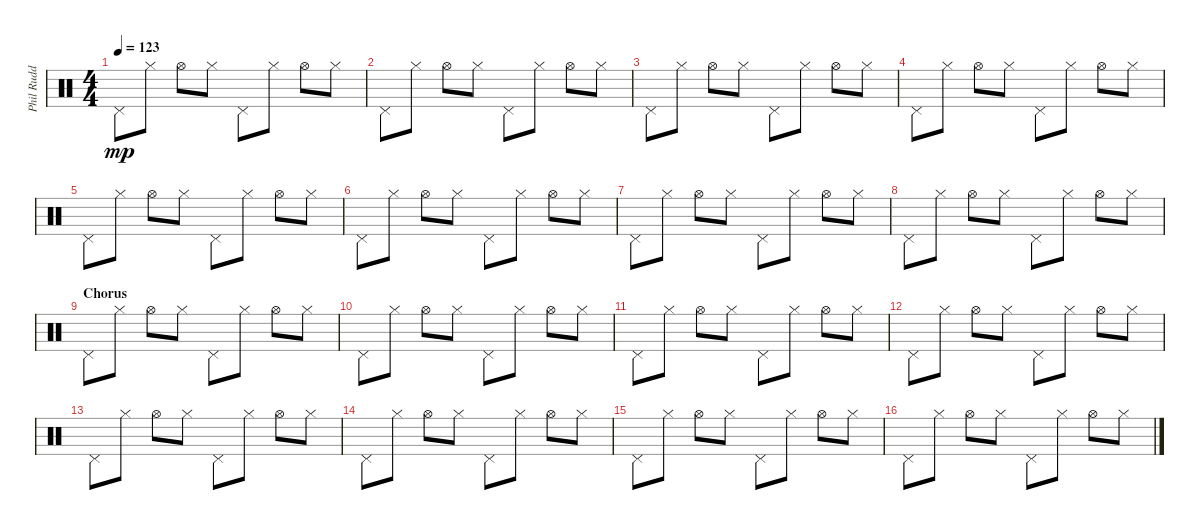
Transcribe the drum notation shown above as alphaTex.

\track ("Phil Rudd (HiHat)" "Phil Rudd ") {instrument percussion}
\staff {score}
\articulation defaults
\ts (4 4)
\tempo 123
\clef neutral
\ks c "Pedal Hi-Hat (hit)".8{dy mp} "Hi-Hat (closed)".8 "Hi-Hat (open)".8 "Hi-Hat (closed)".8 "Pedal Hi-Hat (hit)".8 "Hi-Hat (closed)".8 "Hi-Hat (open)".8 "Hi-Hat (closed)".8
|
"Pedal Hi-Hat (hit)".8 "Hi-Hat (closed)".8 "Hi-Hat (open)".8 "Hi-Hat (closed)".8 "Pedal Hi-Hat (hit)".8 "Hi-Hat (closed)".8 "Hi-Hat (open)".8 "Hi-Hat (closed)".8 |
"Pedal Hi-Hat (hit)".8 "Hi-Hat (closed)".8 "Hi-Hat (open)".8 "Hi-Hat (closed)".8 "Pedal Hi-Hat (hit)".8 "Hi-Hat (closed)".8 "Hi-Hat (open)".8 "Hi-Hat (closed)".8 |
"Pedal Hi-Hat (hit)".8 "Hi-Hat (closed)".8 "Hi-Hat (open)".8 "Hi-Hat (closed)".8 "Pedal Hi-Hat (hit)".8 "Hi-Hat (closed)".8 "Hi-Hat (open)".8 "Hi-Hat (closed)".8 |
"Pedal Hi-Hat (hit)".8 "Hi-Hat (closed)".8 "Hi-Hat (open)".8 "Hi-Hat (closed)".8 "Pedal Hi-Hat (hit)".8 "Hi-Hat (closed)".8 "Hi-Hat (open)".8 "Hi-Hat (closed)".8 |
"Pedal Hi-Hat (hit)".8 "Hi-Hat (closed)".8 "Hi-Hat (open)".8 "Hi-Hat (closed)".8 "Pedal Hi-Hat (hit)".8 "Hi-Hat (closed)".8 "Hi-Hat (open)".8 "Hi-Hat (closed)".8 |
"Pedal Hi-Hat (hit)".8 "Hi-Hat (closed)".8 "Hi-Hat (open)".8 "Hi-Hat (closed)".8 "Pedal Hi-Hat (hit)".8 "Hi-Hat (closed)".8 "Hi-Hat (open)".8 "Hi-Hat (closed)".8 |
"Pedal Hi-Hat (hit)".8 "Hi-Hat (closed)".8 "Hi-Hat (open)".8 "Hi-Hat (closed)".8 "Pedal Hi-Hat (hit)".8 "Hi-Hat (closed)".8 "Hi-Hat (open)".8 "Hi-Hat (closed)".8 |
\section ("" "Chorus")
"Pedal Hi-Hat (hit)".8 "Hi-Hat (closed)".8 "Hi-Hat (open)".8 "Hi-Hat (closed)".8 "Pedal Hi-Hat (hit)".8 "Hi-Hat (closed)".8 "Hi-Hat (open)".8 "Hi-Hat (closed)".8 |
"Pedal Hi-Hat (hit)".8 "Hi-Hat (closed)".8 "Hi-Hat (open)".8 "Hi-Hat (closed)".8 "Pedal Hi-Hat (hit)".8 "Hi-Hat (closed)".8 "Hi-Hat (open)".8 "Hi-Hat (closed)".8 |
"Pedal Hi-Hat (hit)".8 "Hi-Hat (closed)".8 "Hi-Hat (open)".8 "Hi-Hat (closed)".8 "Pedal Hi-Hat (hit)".8 "Hi-Hat (closed)".8 "Hi-Hat (open)".8 "Hi-Hat (closed)".8 |
"Pedal Hi-Hat (hit)".8 "Hi-Hat (closed)".8 "Hi-Hat (open)".8 "Hi-Hat (closed)".8 "Pedal Hi-Hat (hit)".8 "Hi-Hat (closed)".8 "Hi-Hat (open)".8 "Hi-Hat (closed)".8 |
"Pedal Hi-Hat (hit)".8 "Hi-Hat (closed)".8 "Hi-Hat (open)".8 "Hi-Hat (closed)".8 "Pedal Hi-Hat (hit)".8 "Hi-Hat (closed)".8 "Hi-Hat (open)".8 "Hi-Hat (closed)".8 |
"Pedal Hi-Hat (hit)".8 "Hi-Hat (closed)".8 "Hi-Hat (open)".8 "Hi-Hat (closed)".8 "Pedal Hi-Hat (hit)".8 "Hi-Hat (closed)".8 "Hi-Hat (open)".8 "Hi-Hat (closed)".8 |
"Pedal Hi-Hat (hit)".8 "Hi-Hat (closed)".8 "Hi-Hat (open)".8 "Hi-Hat (closed)".8 "Pedal Hi-Hat (hit)".8 "Hi-Hat (closed)".8 "Hi-Hat (open)".8 "Hi-Hat (closed)".8 |
"Pedal Hi-Hat (hit)".8 "Hi-Hat (closed)".8 "Hi-Hat (open)".8 "Hi-Hat (closed)".8 "Pedal Hi-Hat (hit)".8 "Hi-Hat (closed)".8 "Hi-Hat (open)".8 "Hi-Hat (closed)".8
